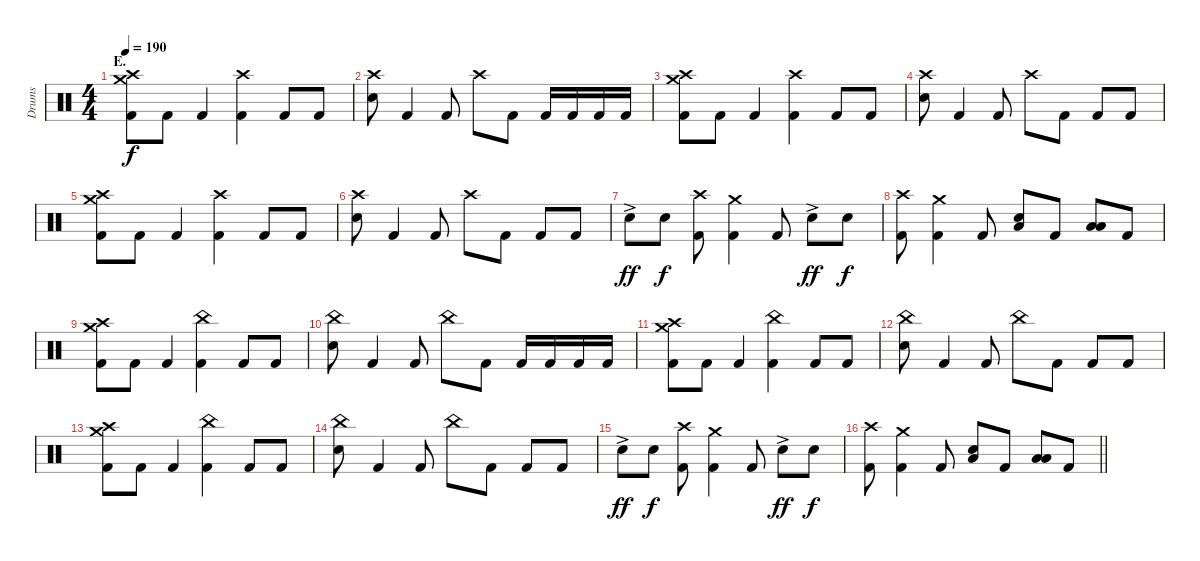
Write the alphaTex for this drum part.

\track ("Drums" "Drums") {instrument percussion}
\staff {score}
\articulation defaults
\ts (4 4)
\section ("" "E.")
\tempo 190
\clef neutral
\ks c
("Crash medium (hit)" "Crash high (hit)" "Kick (hit) 2").8{dy f} "Kick (hit) 2".8 "Kick (hit) 2".4 ("Crash high (hit)" "Kick (hit) 2").4 "Kick (hit) 2".8 "Kick (hit) 2".8 |
("Crash high (hit)" "Electric Snare (hit)").8 "Kick (hit) 2".4 "Kick (hit) 2".8 "Crash high (hit)".8 "Kick (hit) 2".8 "Kick (hit) 2".16 "Kick (hit) 2".16 "Kick (hit) 2".16 "Kick (hit) 2".16 |
("Crash medium (hit)" "Crash high (hit)" "Kick (hit) 2").8 "Kick (hit) 2".8 "Kick (hit) 2".4 ("Crash high (hit)" "Kick (hit) 2").4 "Kick (hit) 2".8 "Kick (hit) 2".8 |
("Crash high (hit)" "Electric Snare (hit)").8 "Kick (hit) 2".4 "Kick (hit) 2".8 "Crash high (hit)".8 "Kick (hit) 2".8 "Kick (hit) 2".8 "Kick (hit) 2".8 |
("Crash medium (hit)" "Crash high (hit)" "Kick (hit) 2").8 "Kick (hit) 2".8 "Kick (hit) 2".4 ("Crash high (hit)" "Kick (hit) 2").4 "Kick (hit) 2".8 "Kick (hit) 2".8 |
("Crash high (hit)" "Electric Snare (hit)").8 "Kick (hit) 2".4 "Kick (hit) 2".8 "Crash high (hit)".8 "Kick (hit) 2".8 "Kick (hit) 2".8 "Kick (hit) 2".8 |
"Electric Snare (hit)"{ac}.8{dy ff} "Electric Snare (hit)".8{dy f} ("Crash high (hit)" "Kick (hit) 2").8 ("Crash medium (hit)" "Kick (hit) 2").4 "Kick (hit) 2".8 "Electric Snare (hit)"{ac}.8{dy ff} "Electric Snare (hit)".8{dy f} |
("Crash high (hit)" "Kick (hit) 2").8 ("Crash medium (hit)" "Kick (hit) 2").4 "Kick (hit) 2".8 ("Electric Snare (hit)" "Low Floor Tom (hit)").8{bu 120} "Kick (hit) 2".8 ("Low Tom (hit)" "Low Floor Tom (hit)").8{bu 120} "Kick (hit) 2".8 |
("Crash medium (hit)" "Crash high (hit)" "Kick (hit) 2").8 "Kick (hit) 2".8 "Kick (hit) 2".4 ("China (hit)" "Kick (hit) 2").4 "Kick (hit) 2".8 "Kick (hit) 2".8 |
("China (hit)" "Electric Snare (hit)").8 "Kick (hit) 2".4 "Kick (hit) 2".8 "China (hit)".8 "Kick (hit) 2".8 "Kick (hit) 2".16 "Kick (hit) 2".16 "Kick (hit) 2".16 "Kick (hit) 2".16 |
("Crash medium (hit)" "Crash high (hit)" "Kick (hit) 2").8 "Kick (hit) 2".8 "Kick (hit) 2".4 ("China (hit)" "Kick (hit) 2").4 "Kick (hit) 2".8 "Kick (hit) 2".8 |
("China (hit)" "Electric Snare (hit)").8 "Kick (hit) 2".4 "Kick (hit) 2".8 "China (hit)".8 "Kick (hit) 2".8 "Kick (hit) 2".8 "Kick (hit) 2".8 |
("Crash medium (hit)" "Crash high (hit)" "Kick (hit) 2").8 "Kick (hit) 2".8 "Kick (hit) 2".4 ("China (hit)" "Kick (hit) 2").4 "Kick (hit) 2".8 "Kick (hit) 2".8 |
("China (hit)" "Electric Snare (hit)").8 "Kick (hit) 2".4 "Kick (hit) 2".8 "China (hit)".8 "Kick (hit) 2".8 "Kick (hit) 2".8 "Kick (hit) 2".8 |
"Electric Snare (hit)"{ac}.8{dy ff} "Electric Snare (hit)".8{dy f} ("Crash high (hit)" "Kick (hit) 2").8 ("Crash medium (hit)" "Kick (hit) 2").4 "Kick (hit) 2".8 "Electric Snare (hit)"{ac}.8{dy ff} "Electric Snare (hit)".8{dy f} |
\barLineRight lightlight
("Crash high (hit)" "Kick (hit) 2").8 ("Crash medium (hit)" "Kick (hit) 2").4 "Kick (hit) 2".8 ("Electric Snare (hit)" "Low Floor Tom (hit)").8{bu 120} "Kick (hit) 2".8 ("Low Tom (hit)" "Low Floor Tom (hit)").8{bu 120} "Kick (hit) 2".8
